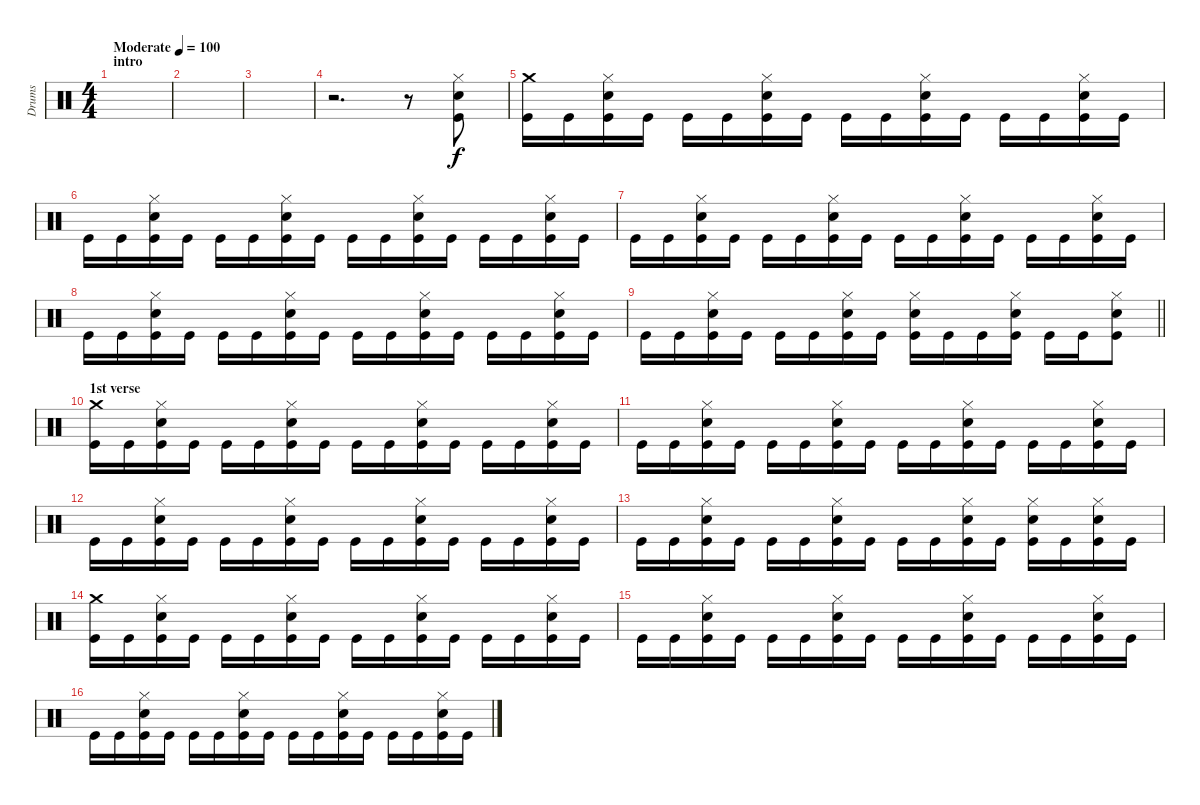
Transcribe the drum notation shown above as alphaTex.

\track ("Drums" "Drums") {instrument percussion}
\staff {score}
\articulation defaults
\ts (4 4)
\section ("" "intro")
\tempo (100 "Moderate")
\clef neutral
\ks c
|
|
|
r.2{d} r.8 ("Hi-Hat (closed)" "Snare (hit) 2" "Kick (hit)").8 |
("Crash medium (hit)" "Kick (hit)").16 "Kick (hit)".16 ("Hi-Hat (closed)" "Snare (hit) 2" "Kick (hit)").16 "Kick (hit)".16 "Kick (hit)".16 "Kick (hit)".16 ("Hi-Hat (closed)" "Snare (hit) 2" "Kick (hit)").16 "Kick (hit)".16 "Kick (hit)".16 "Kick (hit)".16 ("Hi-Hat (closed)" "Snare (hit) 2" "Kick (hit)").16 "Kick (hit)".16 "Kick (hit)".16 "Kick (hit)".16 ("Hi-Hat (closed)" "Snare (hit) 2" "Kick (hit)").16 "Kick (hit)".16 |
"Kick (hit)".16 "Kick (hit)".16 ("Hi-Hat (closed)" "Snare (hit) 2" "Kick (hit)").16 "Kick (hit)".16 "Kick (hit)".16 "Kick (hit)".16 ("Hi-Hat (closed)" "Snare (hit) 2" "Kick (hit)").16 "Kick (hit)".16 "Kick (hit)".16 "Kick (hit)".16 ("Hi-Hat (closed)" "Snare (hit) 2" "Kick (hit)").16 "Kick (hit)".16 "Kick (hit)".16 "Kick (hit)".16 ("Hi-Hat (closed)" "Snare (hit) 2" "Kick (hit)").16 "Kick (hit)".16 |
"Kick (hit)".16 "Kick (hit)".16 ("Hi-Hat (closed)" "Snare (hit) 2" "Kick (hit)").16 "Kick (hit)".16 "Kick (hit)".16 "Kick (hit)".16 ("Hi-Hat (closed)" "Snare (hit) 2" "Kick (hit)").16 "Kick (hit)".16 "Kick (hit)".16 "Kick (hit)".16 ("Hi-Hat (closed)" "Snare (hit) 2" "Kick (hit)").16 "Kick (hit)".16 "Kick (hit)".16 "Kick (hit)".16 ("Hi-Hat (closed)" "Snare (hit) 2" "Kick (hit)").16 "Kick (hit)".16 |
"Kick (hit)".16 "Kick (hit)".16 ("Hi-Hat (closed)" "Snare (hit) 2" "Kick (hit)").16 "Kick (hit)".16 "Kick (hit)".16 "Kick (hit)".16 ("Hi-Hat (closed)" "Snare (hit) 2" "Kick (hit)").16 "Kick (hit)".16 "Kick (hit)".16 "Kick (hit)".16 ("Hi-Hat (closed)" "Snare (hit) 2" "Kick (hit)").16 "Kick (hit)".16 "Kick (hit)".16 "Kick (hit)".16 ("Hi-Hat (closed)" "Snare (hit) 2" "Kick (hit)").16 "Kick (hit)".16 |
\barLineRight lightlight "Kick (hit)".16 "Kick (hit)".16
("Hi-Hat (closed)" "Snare (hit) 2" "Kick (hit)").16 "Kick (hit)".16 "Kick (hit)".16 "Kick (hit)".16 ("Hi-Hat (closed)" "Snare (hit) 2" "Kick (hit)").16 "Kick (hit)".16 ("Hi-Hat (closed)" "Snare (hit) 2" "Kick (hit)").16 "Kick (hit)".16 "Kick (hit)".16 ("Hi-Hat (closed)" "Snare (hit) 2" "Kick (hit)").16 "Kick (hit)".16 "Kick (hit)".16 ("Hi-Hat (closed)" "Snare (hit) 2" "Kick (hit)").8 |
\section ("" "1st verse")
("Crash medium (hit)" "Kick (hit)").16 "Kick (hit)".16 ("Hi-Hat (closed)" "Snare (hit) 2" "Kick (hit)").16 "Kick (hit)".16 "Kick (hit)".16 "Kick (hit)".16 ("Hi-Hat (closed)" "Snare (hit) 2" "Kick (hit)").16 "Kick (hit)".16 "Kick (hit)".16 "Kick (hit)".16 ("Hi-Hat (closed)" "Snare (hit) 2" "Kick (hit)").16 "Kick (hit)".16 "Kick (hit)".16 "Kick (hit)".16 ("Hi-Hat (closed)" "Snare (hit) 2" "Kick (hit)").16 "Kick (hit)".16 |
"Kick (hit)".16 "Kick (hit)".16 ("Hi-Hat (closed)" "Snare (hit) 2" "Kick (hit)").16 "Kick (hit)".16 "Kick (hit)".16 "Kick (hit)".16 ("Hi-Hat (closed)" "Snare (hit) 2" "Kick (hit)").16 "Kick (hit)".16 "Kick (hit)".16 "Kick (hit)".16 ("Hi-Hat (closed)" "Snare (hit) 2" "Kick (hit)").16 "Kick (hit)".16 "Kick (hit)".16 "Kick (hit)".16 ("Hi-Hat (closed)" "Snare (hit) 2" "Kick (hit)").16 "Kick (hit)".16 |
"Kick (hit)".16 "Kick (hit)".16 ("Hi-Hat (closed)" "Snare (hit) 2" "Kick (hit)").16 "Kick (hit)".16 "Kick (hit)".16 "Kick (hit)".16 ("Hi-Hat (closed)" "Snare (hit) 2" "Kick (hit)").16 "Kick (hit)".16 "Kick (hit)".16 "Kick (hit)".16 ("Hi-Hat (closed)" "Snare (hit) 2" "Kick (hit)").16 "Kick (hit)".16 "Kick (hit)".16 "Kick (hit)".16 ("Hi-Hat (closed)" "Snare (hit) 2" "Kick (hit)").16 "Kick (hit)".16 |
"Kick (hit)".16 "Kick (hit)".16 ("Hi-Hat (closed)" "Snare (hit) 2" "Kick (hit)").16 "Kick (hit)".16 "Kick (hit)".16 "Kick (hit)".16 ("Hi-Hat (closed)" "Snare (hit) 2" "Kick (hit)").16 "Kick (hit)".16 "Kick (hit)".16 "Kick (hit)".16 ("Hi-Hat (closed)" "Snare (hit) 2" "Kick (hit)").16 "Kick (hit)".16 ("Hi-Hat (closed)" "Snare (hit) 2" "Kick (hit)").16 "Kick (hit)".16 ("Hi-Hat (closed)" "Snare (hit) 2" "Kick (hit)").16 "Kick (hit)".16 |
("Crash medium (hit)" "Kick (hit)").16 "Kick (hit)".16 ("Hi-Hat (closed)" "Snare (hit) 2" "Kick (hit)").16 "Kick (hit)".16 "Kick (hit)".16 "Kick (hit)".16 ("Hi-Hat (closed)" "Snare (hit) 2" "Kick (hit)").16 "Kick (hit)".16 "Kick (hit)".16 "Kick (hit)".16 ("Hi-Hat (closed)" "Snare (hit) 2" "Kick (hit)").16 "Kick (hit)".16 "Kick (hit)".16 "Kick (hit)".16 ("Hi-Hat (closed)" "Snare (hit) 2" "Kick (hit)").16 "Kick (hit)".16 |
"Kick (hit)".16 "Kick (hit)".16 ("Hi-Hat (closed)" "Snare (hit) 2" "Kick (hit)").16 "Kick (hit)".16 "Kick (hit)".16 "Kick (hit)".16 ("Hi-Hat (closed)" "Snare (hit) 2" "Kick (hit)").16 "Kick (hit)".16 "Kick (hit)".16 "Kick (hit)".16 ("Hi-Hat (closed)" "Snare (hit) 2" "Kick (hit)").16 "Kick (hit)".16 "Kick (hit)".16 "Kick (hit)".16 ("Hi-Hat (closed)" "Snare (hit) 2" "Kick (hit)").16 "Kick (hit)".16 |
"Kick (hit)".16 "Kick (hit)".16 ("Hi-Hat (closed)" "Snare (hit) 2" "Kick (hit)").16 "Kick (hit)".16 "Kick (hit)".16 "Kick (hit)".16 ("Hi-Hat (closed)" "Snare (hit) 2" "Kick (hit)").16 "Kick (hit)".16 "Kick (hit)".16 "Kick (hit)".16 ("Hi-Hat (closed)" "Snare (hit) 2" "Kick (hit)").16 "Kick (hit)".16 "Kick (hit)".16 "Kick (hit)".16 ("Hi-Hat (closed)" "Snare (hit) 2" "Kick (hit)").16 "Kick (hit)".16
